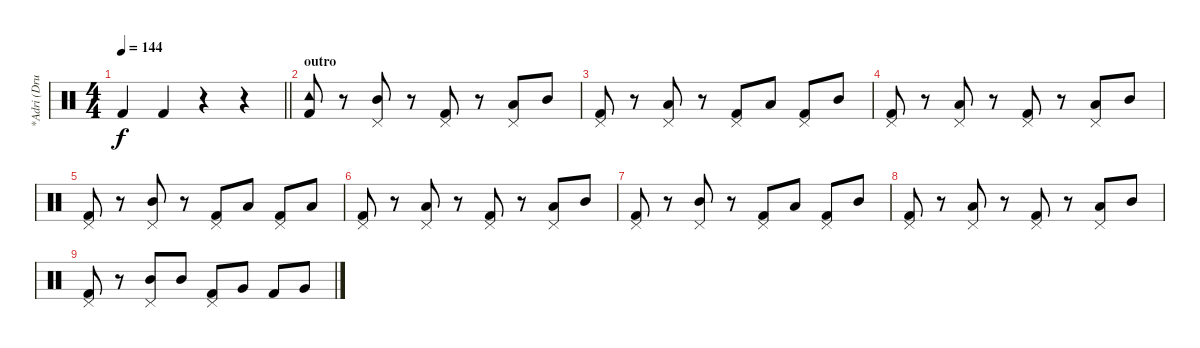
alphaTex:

\track ("*Adri (Drum)" "*Adri (Dru") {instrument percussion}
\staff {score}
\articulation defaults
\ts (4 4)
\tempo 144
\clef neutral
\barLineRight lightlight
\ks c "Kick (hit) 2".4{dy f} "Kick (hit) 2".4
r.4 r.4 |
\section ("" "outro")
("Tambourine (hit)" "Kick (hit) 2").8 r.8 ("Pedal Hi-Hat (hit)" "Mid Tom (hit)").8 r.8 ("Pedal Hi-Hat (hit)" "Kick (hit) 2").8 r.8 ("Pedal Hi-Hat (hit)" "Low Tom (hit)").8 "Mid Tom (hit)".8 |
("Pedal Hi-Hat (hit)" "Kick (hit) 2").8 r.8 ("Pedal Hi-Hat (hit)" "Low Tom (hit)").8 r.8 ("Pedal Hi-Hat (hit)" "Kick (hit) 2").8 "Low Tom (hit)".8 ("Pedal Hi-Hat (hit)" "Kick (hit) 2").8 "Mid Tom (hit)".8 |
("Pedal Hi-Hat (hit)" "Kick (hit) 2").8 r.8 ("Pedal Hi-Hat (hit)" "Low Tom (hit)").8 r.8 ("Pedal Hi-Hat (hit)" "Kick (hit) 2").8 r.8 ("Pedal Hi-Hat (hit)" "Low Tom (hit)").8 "Mid Tom (hit)".8 |
("Pedal Hi-Hat (hit)" "Kick (hit) 2").8 r.8 ("Pedal Hi-Hat (hit)" "Mid Tom (hit)").8 r.8 ("Pedal Hi-Hat (hit)" "Kick (hit) 2").8 "Low Tom (hit)".8 ("Pedal Hi-Hat (hit)" "Kick (hit) 2").8 "Low Tom (hit)".8 |
("Pedal Hi-Hat (hit)" "Kick (hit) 2").8 r.8 ("Pedal Hi-Hat (hit)" "Low Tom (hit)").8 r.8 ("Pedal Hi-Hat (hit)" "Kick (hit) 2").8 r.8 ("Pedal Hi-Hat (hit)" "Low Tom (hit)").8 "Mid Tom (hit)".8 |
("Pedal Hi-Hat (hit)" "Kick (hit) 2").8 r.8 ("Pedal Hi-Hat (hit)" "Mid Tom (hit)").8 r.8 ("Pedal Hi-Hat (hit)" "Kick (hit) 2").8 "Low Tom (hit)".8 ("Pedal Hi-Hat (hit)" "Kick (hit) 2").8 "Mid Tom (hit)".8 |
("Pedal Hi-Hat (hit)" "Kick (hit) 2").8 r.8 ("Pedal Hi-Hat (hit)" "Low Tom (hit)").8 r.8 ("Pedal Hi-Hat (hit)" "Kick (hit) 2").8 r.8 ("Pedal Hi-Hat (hit)" "Low Tom (hit)").8 "Mid Tom (hit)".8 |
("Pedal Hi-Hat (hit)" "Kick (hit) 2").8 r.8 ("Pedal Hi-Hat (hit)" "Mid Tom (hit)").8 "Mid Tom (hit)".8 ("Pedal Hi-Hat (hit)" "Kick (hit) 2").8 "Very Low Tom (hit)".8 "Kick (hit) 2".8 "Very Low Tom (hit)".8
